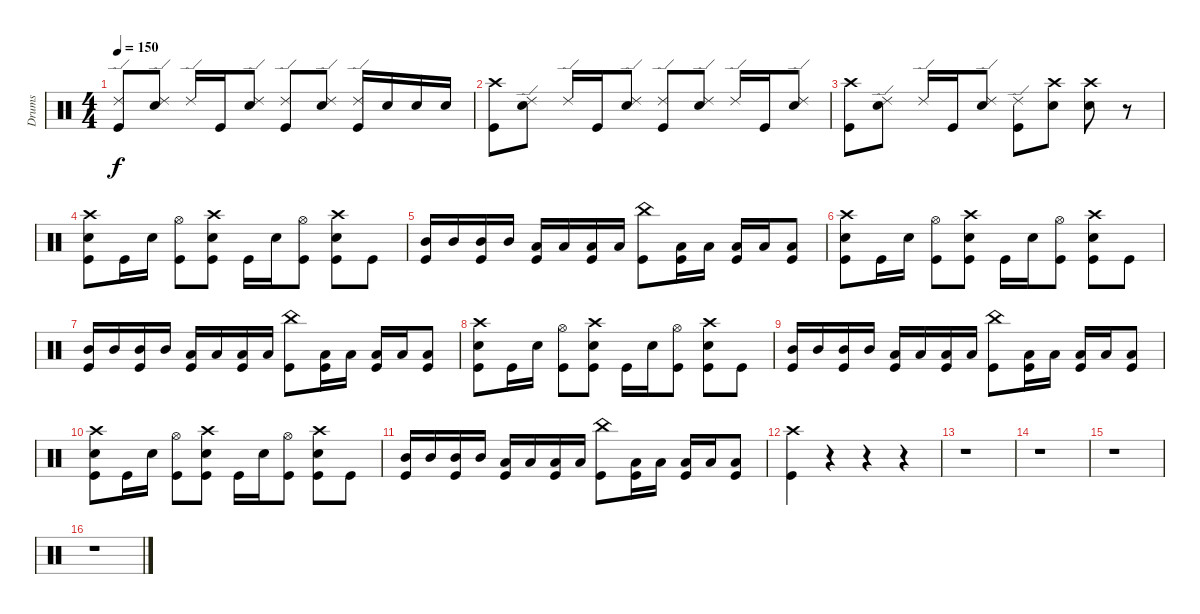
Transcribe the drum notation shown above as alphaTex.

\track ("Drums" "Drums") {instrument percussion}
\staff {score}
\articulation defaults
\ts (4 4)
\tempo 150
\clef neutral
\ks c
("Ride (edge) 2" "Kick (hit)").8{dy f} ("Ride (edge) 2" "Snare (hit) 2").8 "Ride (edge) 2".16 "Kick (hit)".16 ("Ride (edge) 2" "Snare (hit) 2").8 ("Ride (edge) 2" "Kick (hit)").8 ("Ride (edge) 2" "Snare (hit) 2").8 ("Ride (edge) 2" "Kick (hit)").16 "Snare (hit) 2".16 "Snare (hit) 2".16 "Snare (hit) 2".16 |
("Crash high (hit)" "Kick (hit)").8 ("Ride (edge) 2" "Snare (hit) 2").8 "Ride (edge) 2".16 "Kick (hit)".16 ("Ride (edge) 2" "Snare (hit) 2").8 ("Ride (edge) 2" "Kick (hit)").8 ("Ride (edge) 2" "Snare (hit) 2").8 "Ride (edge) 2".16 "Kick (hit)".16 ("Ride (edge) 2" "Snare (hit) 2").8 |
("Crash high (hit)" "Kick (hit)").8 ("Ride (edge) 2" "Snare (hit) 2").8 "Ride (edge) 2".16 "Kick (hit)".16 ("Ride (edge) 2" "Snare (hit) 2").8 ("Ride (edge) 2" "Kick (hit)").8 ("Crash high (hit)" "Snare (hit) 2").8 ("Crash high (hit)" "Snare (hit) 2").8 r.8 |
("Crash high (hit)" "Snare (hit) 2" "Kick (hit)").8 "Kick (hit)".16 "Snare (hit) 2".16 ("Hi-Hat (open)" "Kick (hit)").8 ("Crash high (hit)" "Snare (hit) 2" "Kick (hit)").8 "Kick (hit)".16 "Snare (hit) 2".16 ("Hi-Hat (open)" "Kick (hit)").8 ("Crash high (hit)" "Snare (hit) 2" "Kick (hit)").8 "Kick (hit)".8 |
("Mid Tom (hit)" "Kick (hit)").16 "Mid Tom (hit)".16 ("Mid Tom (hit)" "Kick (hit)").16 "Mid Tom (hit)".16 ("Low Tom (hit)" "Kick (hit)").16 "Low Tom (hit)".16 ("Low Tom (hit)" "Kick (hit)").16 "Low Tom (hit)".16 ("China (hit)" "Kick (hit)").8 ("Low Floor Tom (hit)" "Kick (hit)").16 "Low Floor Tom (hit)".16 ("Low Floor Tom (hit)" "Kick (hit)").16 "Low Floor Tom (hit)".16 ("Low Floor Tom (hit)" "Kick (hit)").8 |
("Crash high (hit)" "Snare (hit) 2" "Kick (hit)").8 "Kick (hit)".16 "Snare (hit) 2".16 ("Hi-Hat (open)" "Kick (hit)").8 ("Crash high (hit)" "Snare (hit) 2" "Kick (hit)").8 "Kick (hit)".16 "Snare (hit) 2".16 ("Hi-Hat (open)" "Kick (hit)").8 ("Crash high (hit)" "Snare (hit) 2" "Kick (hit)").8 "Kick (hit)".8 |
("Mid Tom (hit)" "Kick (hit)").16 "Mid Tom (hit)".16 ("Mid Tom (hit)" "Kick (hit)").16 "Mid Tom (hit)".16 ("Low Tom (hit)" "Kick (hit)").16 "Low Tom (hit)".16 ("Low Tom (hit)" "Kick (hit)").16 "Low Tom (hit)".16 ("China (hit)" "Kick (hit)").8 ("Low Floor Tom (hit)" "Kick (hit)").16 "Low Floor Tom (hit)".16 ("Low Floor Tom (hit)" "Kick (hit)").16 "Low Floor Tom (hit)".16 ("Low Floor Tom (hit)" "Kick (hit)").8 |
("Crash high (hit)" "Snare (hit) 2" "Kick (hit)").8 "Kick (hit)".16 "Snare (hit) 2".16 ("Hi-Hat (open)" "Kick (hit)").8 ("Crash high (hit)" "Snare (hit) 2" "Kick (hit)").8 "Kick (hit)".16 "Snare (hit) 2".16 ("Hi-Hat (open)" "Kick (hit)").8 ("Crash high (hit)" "Snare (hit) 2" "Kick (hit)").8 "Kick (hit)".8 |
("Mid Tom (hit)" "Kick (hit)").16 "Mid Tom (hit)".16 ("Mid Tom (hit)" "Kick (hit)").16 "Mid Tom (hit)".16 ("Low Tom (hit)" "Kick (hit)").16 "Low Tom (hit)".16 ("Low Tom (hit)" "Kick (hit)").16 "Low Tom (hit)".16 ("China (hit)" "Kick (hit)").8 ("Low Floor Tom (hit)" "Kick (hit)").16 "Low Floor Tom (hit)".16 ("Low Floor Tom (hit)" "Kick (hit)").16 "Low Floor Tom (hit)".16 ("Low Floor Tom (hit)" "Kick (hit)").8 |
("Crash high (hit)" "Snare (hit) 2" "Kick (hit)").8 "Kick (hit)".16 "Snare (hit) 2".16 ("Hi-Hat (open)" "Kick (hit)").8 ("Crash high (hit)" "Snare (hit) 2" "Kick (hit)").8 "Kick (hit)".16 "Snare (hit) 2".16 ("Hi-Hat (open)" "Kick (hit)").8 ("Crash high (hit)" "Snare (hit) 2" "Kick (hit)").8 "Kick (hit)".8 |
("Mid Tom (hit)" "Kick (hit)").16 "Mid Tom (hit)".16 ("Mid Tom (hit)" "Kick (hit)").16 "Mid Tom (hit)".16 ("Low Tom (hit)" "Kick (hit)").16 "Low Tom (hit)".16 ("Low Tom (hit)" "Kick (hit)").16 "Low Tom (hit)".16 ("China (hit)" "Kick (hit)").8 ("Low Floor Tom (hit)" "Kick (hit)").16 "Low Floor Tom (hit)".16 ("Low Floor Tom (hit)" "Kick (hit)").16 "Low Floor Tom (hit)".16 ("Low Floor Tom (hit)" "Kick (hit)").8 |
("Crash high (hit)" "Kick (hit)").4 r.4 r.4 r.4 |
r.1 |
r.1 |
r.1 |
r.1
